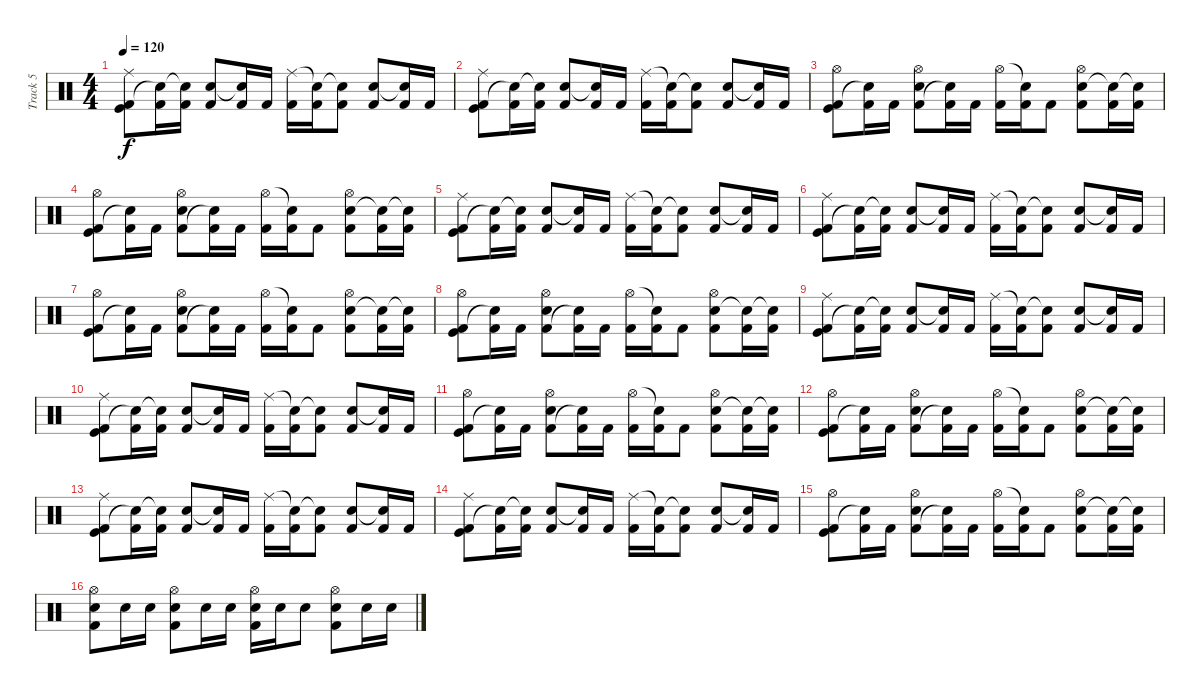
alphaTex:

\track ("Track 5" "Track 5") {instrument percussion}
\staff {score}
\articulation defaults
\ts (4 4)
\tempo 120
\clef neutral
\ks c
("Kick (hit)" "Kick (hit) 2" "Ride (middle)").8{dy f} ("Kick (hit) 2" "Snare (hit)"{t}).16 ("Kick (hit) 2" "Snare (hit)"{t}).16 ("Kick (hit) 2" "Snare (hit) 2").8 ("Kick (hit) 2" "Snare (hit)"{t}).16 "Kick (hit) 2".16 ("Kick (hit) 2" "Ride (middle)").16 ("Kick (hit) 2" "Snare (hit)"{t}).16 ("Kick (hit) 2" "Snare (hit)"{t}).8 ("Kick (hit) 2" "Snare (hit) 2").8 ("Kick (hit) 2" "Snare (hit)"{t}).16 "Kick (hit) 2".16 |
("Kick (hit)" "Kick (hit) 2" "Ride (middle)").8 ("Kick (hit) 2" "Snare (hit)"{t}).16 ("Kick (hit) 2" "Snare (hit)"{t}).16 ("Kick (hit) 2" "Snare (hit) 2").8 ("Kick (hit) 2" "Snare (hit)"{t}).16 "Kick (hit) 2".16 ("Kick (hit) 2" "Ride (middle)").16 ("Kick (hit) 2" "Snare (hit)"{t}).16 ("Kick (hit) 2" "Snare (hit)"{t}).8 ("Kick (hit) 2" "Snare (hit) 2").8 ("Kick (hit) 2" "Snare (hit)"{t}).16 "Kick (hit) 2".16 |
("Kick (hit)" "Kick (hit) 2" "Hi-Hat (open)").8 ("Kick (hit) 2" "Snare (hit)"{t}).16 "Kick (hit) 2".16 ("Snare (hit) 2" "Kick (hit) 2" "Hi-Hat (open)").8 ("Kick (hit) 2" "Snare (hit)"{t}).16 "Kick (hit) 2".16 ("Kick (hit) 2" "Hi-Hat (open)").16 ("Kick (hit) 2" "Snare (hit)"{t}).16 "Kick (hit) 2".8 ("Kick (hit) 2" "Snare (hit) 2" "Hi-Hat (open)").8 ("Kick (hit) 2" "Snare (hit)"{t}).16 ("Kick (hit) 2" "Snare (hit)"{t}).16 |
("Kick (hit)" "Kick (hit) 2" "Hi-Hat (open)").8 ("Kick (hit) 2" "Snare (hit)"{t}).16 "Kick (hit) 2".16 ("Snare (hit) 2" "Kick (hit) 2" "Hi-Hat (open)").8 ("Kick (hit) 2" "Snare (hit)"{t}).16 "Kick (hit) 2".16 ("Kick (hit) 2" "Hi-Hat (open)").16 ("Kick (hit) 2" "Snare (hit)"{t}).16 "Kick (hit) 2".8 ("Kick (hit) 2" "Snare (hit) 2" "Hi-Hat (open)").8 ("Kick (hit) 2" "Snare (hit)"{t}).16 ("Kick (hit) 2" "Snare (hit)"{t}).16 |
("Kick (hit)" "Kick (hit) 2" "Ride (middle)").8 ("Kick (hit) 2" "Snare (hit)"{t}).16 ("Kick (hit) 2" "Snare (hit)"{t}).16 ("Kick (hit) 2" "Snare (hit) 2").8 ("Kick (hit) 2" "Snare (hit)"{t}).16 "Kick (hit) 2".16 ("Kick (hit) 2" "Ride (middle)").16 ("Kick (hit) 2" "Snare (hit)"{t}).16 ("Kick (hit) 2" "Snare (hit)"{t}).8 ("Kick (hit) 2" "Snare (hit) 2").8 ("Kick (hit) 2" "Snare (hit)"{t}).16 "Kick (hit) 2".16 |
("Kick (hit)" "Kick (hit) 2" "Ride (middle)").8 ("Kick (hit) 2" "Snare (hit)"{t}).16 ("Kick (hit) 2" "Snare (hit)"{t}).16 ("Kick (hit) 2" "Snare (hit) 2").8 ("Kick (hit) 2" "Snare (hit)"{t}).16 "Kick (hit) 2".16 ("Kick (hit) 2" "Ride (middle)").16 ("Kick (hit) 2" "Snare (hit)"{t}).16 ("Kick (hit) 2" "Snare (hit)"{t}).8 ("Kick (hit) 2" "Snare (hit) 2").8 ("Kick (hit) 2" "Snare (hit)"{t}).16 "Kick (hit) 2".16 |
("Kick (hit)" "Kick (hit) 2" "Hi-Hat (open)").8 ("Kick (hit) 2" "Snare (hit)"{t}).16 "Kick (hit) 2".16 ("Snare (hit) 2" "Kick (hit) 2" "Hi-Hat (open)").8 ("Kick (hit) 2" "Snare (hit)"{t}).16 "Kick (hit) 2".16 ("Kick (hit) 2" "Hi-Hat (open)").16 ("Kick (hit) 2" "Snare (hit)"{t}).16 "Kick (hit) 2".8 ("Kick (hit) 2" "Snare (hit) 2" "Hi-Hat (open)").8 ("Kick (hit) 2" "Snare (hit)"{t}).16 ("Kick (hit) 2" "Snare (hit)"{t}).16 |
("Kick (hit)" "Kick (hit) 2" "Hi-Hat (open)").8 ("Kick (hit) 2" "Snare (hit)"{t}).16 "Kick (hit) 2".16 ("Snare (hit) 2" "Kick (hit) 2" "Hi-Hat (open)").8 ("Kick (hit) 2" "Snare (hit)"{t}).16 "Kick (hit) 2".16 ("Kick (hit) 2" "Hi-Hat (open)").16 ("Kick (hit) 2" "Snare (hit)"{t}).16 "Kick (hit) 2".8 ("Kick (hit) 2" "Snare (hit) 2" "Hi-Hat (open)").8 ("Kick (hit) 2" "Snare (hit)"{t}).16 ("Kick (hit) 2" "Snare (hit)"{t}).16 |
("Kick (hit)" "Kick (hit) 2" "Ride (middle)").8 ("Kick (hit) 2" "Snare (hit)"{t}).16 ("Kick (hit) 2" "Snare (hit)"{t}).16 ("Kick (hit) 2" "Snare (hit) 2").8 ("Kick (hit) 2" "Snare (hit)"{t}).16 "Kick (hit) 2".16 ("Kick (hit) 2" "Ride (middle)").16 ("Kick (hit) 2" "Snare (hit)"{t}).16 ("Kick (hit) 2" "Snare (hit)"{t}).8 ("Kick (hit) 2" "Snare (hit) 2").8 ("Kick (hit) 2" "Snare (hit)"{t}).16 "Kick (hit) 2".16 |
("Kick (hit)" "Kick (hit) 2" "Ride (middle)").8 ("Kick (hit) 2" "Snare (hit)"{t}).16 ("Kick (hit) 2" "Snare (hit)"{t}).16 ("Kick (hit) 2" "Snare (hit) 2").8 ("Kick (hit) 2" "Snare (hit)"{t}).16 "Kick (hit) 2".16 ("Kick (hit) 2" "Ride (middle)").16 ("Kick (hit) 2" "Snare (hit)"{t}).16 ("Kick (hit) 2" "Snare (hit)"{t}).8 ("Kick (hit) 2" "Snare (hit) 2").8 ("Kick (hit) 2" "Snare (hit)"{t}).16 "Kick (hit) 2".16 |
("Kick (hit)" "Kick (hit) 2" "Hi-Hat (open)").8 ("Kick (hit) 2" "Snare (hit)"{t}).16 "Kick (hit) 2".16 ("Snare (hit) 2" "Kick (hit) 2" "Hi-Hat (open)").8 ("Kick (hit) 2" "Snare (hit)"{t}).16 "Kick (hit) 2".16 ("Kick (hit) 2" "Hi-Hat (open)").16 ("Kick (hit) 2" "Snare (hit)"{t}).16 "Kick (hit) 2".8 ("Kick (hit) 2" "Snare (hit) 2" "Hi-Hat (open)").8 ("Kick (hit) 2" "Snare (hit)"{t}).16 ("Kick (hit) 2" "Snare (hit)"{t}).16 |
("Kick (hit)" "Kick (hit) 2" "Hi-Hat (open)").8 ("Kick (hit) 2" "Snare (hit)"{t}).16 "Kick (hit) 2".16 ("Snare (hit) 2" "Kick (hit) 2" "Hi-Hat (open)").8 ("Kick (hit) 2" "Snare (hit)"{t}).16 "Kick (hit) 2".16 ("Kick (hit) 2" "Hi-Hat (open)").16 ("Kick (hit) 2" "Snare (hit)"{t}).16 "Kick (hit) 2".8 ("Kick (hit) 2" "Snare (hit) 2" "Hi-Hat (open)").8 ("Kick (hit) 2" "Snare (hit)"{t}).16 ("Kick (hit) 2" "Snare (hit)"{t}).16 |
("Kick (hit)" "Kick (hit) 2" "Ride (middle)").8 ("Kick (hit) 2" "Snare (hit)"{t}).16 ("Kick (hit) 2" "Snare (hit)"{t}).16 ("Kick (hit) 2" "Snare (hit) 2").8 ("Kick (hit) 2" "Snare (hit)"{t}).16 "Kick (hit) 2".16 ("Kick (hit) 2" "Ride (middle)").16 ("Kick (hit) 2" "Snare (hit)"{t}).16 ("Kick (hit) 2" "Snare (hit)"{t}).8 ("Kick (hit) 2" "Snare (hit) 2").8 ("Kick (hit) 2" "Snare (hit)"{t}).16 "Kick (hit) 2".16 |
("Kick (hit)" "Kick (hit) 2" "Ride (middle)").8 ("Kick (hit) 2" "Snare (hit)"{t}).16 ("Kick (hit) 2" "Snare (hit)"{t}).16 ("Kick (hit) 2" "Snare (hit) 2").8 ("Kick (hit) 2" "Snare (hit)"{t}).16 "Kick (hit) 2".16 ("Kick (hit) 2" "Ride (middle)").16 ("Kick (hit) 2" "Snare (hit)"{t}).16 ("Kick (hit) 2" "Snare (hit)"{t}).8 ("Kick (hit) 2" "Snare (hit) 2").8 ("Kick (hit) 2" "Snare (hit)"{t}).16 "Kick (hit) 2".16 |
("Kick (hit)" "Kick (hit) 2" "Hi-Hat (open)").8 ("Kick (hit) 2" "Snare (hit)"{t}).16 "Kick (hit) 2".16 ("Snare (hit) 2" "Kick (hit) 2" "Hi-Hat (open)").8 ("Kick (hit) 2" "Snare (hit)"{t}).16 "Kick (hit) 2".16 ("Kick (hit) 2" "Hi-Hat (open)").16 ("Kick (hit) 2" "Snare (hit)"{t}).16 "Kick (hit) 2".8 ("Kick (hit) 2" "Snare (hit) 2" "Hi-Hat (open)").8 ("Kick (hit) 2" "Snare (hit)"{t}).16 ("Kick (hit) 2" "Snare (hit)"{t}).16 |
("Snare (hit) 2" "Hi-Hat (open)" "Kick (hit) 2").8 "Snare (hit) 2".16 "Snare (hit) 2".16 ("Snare (hit) 2" "Hi-Hat (open)" "Kick (hit) 2").8 "Snare (hit) 2".16 "Snare (hit) 2".16 ("Snare (hit) 2" "Hi-Hat (open)" "Kick (hit) 2").16 "Snare (hit) 2".16 "Snare (hit) 2".8 ("Snare (hit) 2" "Hi-Hat (open)" "Kick (hit) 2").8 "Snare (hit) 2".16 "Snare (hit) 2".16
